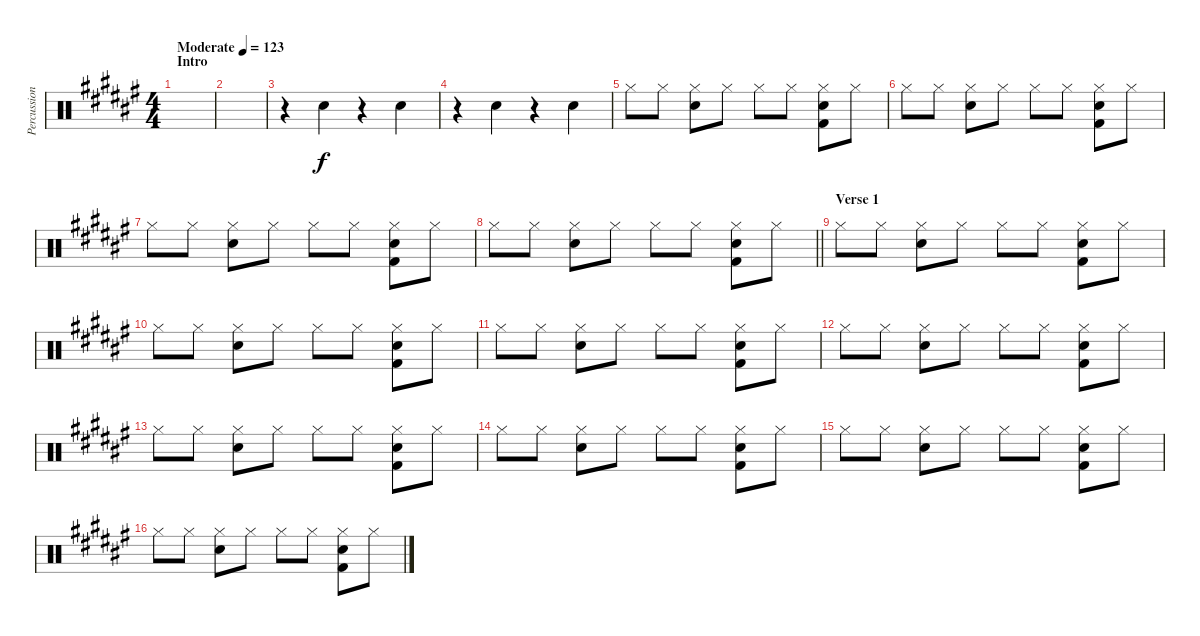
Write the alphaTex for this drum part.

\track ("Percussion" "Percussion") {instrument percussion}
\staff {score}
\articulation defaults
\ts (4 4)
\section ("" "Intro")
\tempo (123 "Moderate")
\clef neutral
\ks f#
|
|
r.4 "Snare (hit) 2".4 r.4 "Snare (hit) 2".4 |
r.4 "Snare (hit) 2".4 r.4 "Snare (hit) 2".4 |
"Hi-Hat (closed)".8 "Hi-Hat (closed)".8 ("Hi-Hat (closed)" "Snare (hit) 2").8 "Hi-Hat (closed)".8 "Hi-Hat (closed)".8 "Hi-Hat (closed)".8 ("Hi-Hat (closed)" "Snare (hit) 2" "Kick (hit) 2").8 "Hi-Hat (closed)".8 |
"Hi-Hat (closed)".8 "Hi-Hat (closed)".8 ("Hi-Hat (closed)" "Snare (hit) 2").8 "Hi-Hat (closed)".8 "Hi-Hat (closed)".8 "Hi-Hat (closed)".8 ("Hi-Hat (closed)" "Snare (hit) 2" "Kick (hit) 2").8 "Hi-Hat (closed)".8 |
"Hi-Hat (closed)".8 "Hi-Hat (closed)".8 ("Hi-Hat (closed)" "Snare (hit) 2").8 "Hi-Hat (closed)".8 "Hi-Hat (closed)".8 "Hi-Hat (closed)".8 ("Hi-Hat (closed)" "Snare (hit) 2" "Kick (hit) 2").8 "Hi-Hat (closed)".8 |
\barLineRight lightlight "Hi-Hat (closed)".8 "Hi-Hat (closed)".8
("Hi-Hat (closed)" "Snare (hit) 2").8 "Hi-Hat (closed)".8 "Hi-Hat (closed)".8 "Hi-Hat (closed)".8 ("Hi-Hat (closed)" "Snare (hit) 2" "Kick (hit) 2").8 "Hi-Hat (closed)".8 |
\section ("" "Verse 1")
"Hi-Hat (closed)".8 "Hi-Hat (closed)".8 ("Hi-Hat (closed)" "Snare (hit) 2").8 "Hi-Hat (closed)".8 "Hi-Hat (closed)".8 "Hi-Hat (closed)".8 ("Hi-Hat (closed)" "Snare (hit) 2" "Kick (hit) 2").8 "Hi-Hat (closed)".8 |
"Hi-Hat (closed)".8 "Hi-Hat (closed)".8 ("Hi-Hat (closed)" "Snare (hit) 2").8 "Hi-Hat (closed)".8 "Hi-Hat (closed)".8 "Hi-Hat (closed)".8 ("Hi-Hat (closed)" "Snare (hit) 2" "Kick (hit) 2").8 "Hi-Hat (closed)".8 |
"Hi-Hat (closed)".8 "Hi-Hat (closed)".8 ("Hi-Hat (closed)" "Snare (hit) 2").8 "Hi-Hat (closed)".8 "Hi-Hat (closed)".8 "Hi-Hat (closed)".8 ("Hi-Hat (closed)" "Snare (hit) 2" "Kick (hit) 2").8 "Hi-Hat (closed)".8 |
"Hi-Hat (closed)".8 "Hi-Hat (closed)".8 ("Hi-Hat (closed)" "Snare (hit) 2").8 "Hi-Hat (closed)".8 "Hi-Hat (closed)".8 "Hi-Hat (closed)".8 ("Hi-Hat (closed)" "Snare (hit) 2" "Kick (hit) 2").8 "Hi-Hat (closed)".8 |
"Hi-Hat (closed)".8 "Hi-Hat (closed)".8 ("Hi-Hat (closed)" "Snare (hit) 2").8 "Hi-Hat (closed)".8 "Hi-Hat (closed)".8 "Hi-Hat (closed)".8 ("Hi-Hat (closed)" "Snare (hit) 2" "Kick (hit) 2").8 "Hi-Hat (closed)".8 |
"Hi-Hat (closed)".8 "Hi-Hat (closed)".8 ("Hi-Hat (closed)" "Snare (hit) 2").8 "Hi-Hat (closed)".8 "Hi-Hat (closed)".8 "Hi-Hat (closed)".8 ("Hi-Hat (closed)" "Snare (hit) 2" "Kick (hit) 2").8 "Hi-Hat (closed)".8 |
"Hi-Hat (closed)".8 "Hi-Hat (closed)".8 ("Hi-Hat (closed)" "Snare (hit) 2").8 "Hi-Hat (closed)".8 "Hi-Hat (closed)".8 "Hi-Hat (closed)".8 ("Hi-Hat (closed)" "Snare (hit) 2" "Kick (hit) 2").8 "Hi-Hat (closed)".8 |
"Hi-Hat (closed)".8 "Hi-Hat (closed)".8 ("Hi-Hat (closed)" "Snare (hit) 2").8 "Hi-Hat (closed)".8 "Hi-Hat (closed)".8 "Hi-Hat (closed)".8 ("Hi-Hat (closed)" "Snare (hit) 2" "Kick (hit) 2").8 "Hi-Hat (closed)".8
